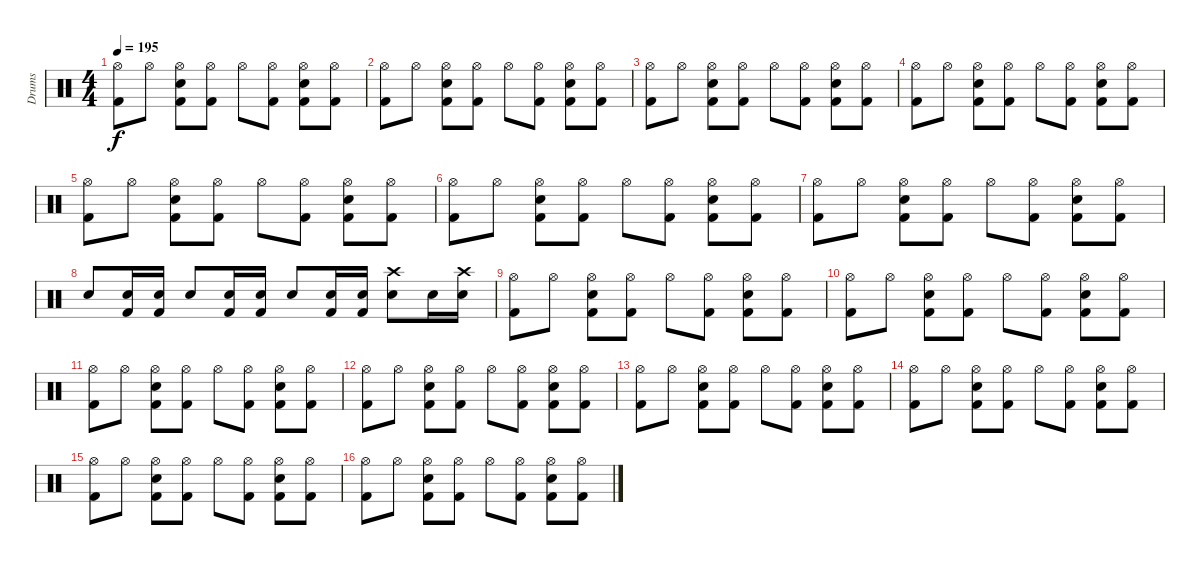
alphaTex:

\track ("Drums" "Drums") {instrument percussion}
\staff {score}
\articulation defaults
\ts (4 4)
\tempo 195
\clef neutral
\ks c
("Hi-Hat (open)" "Kick (hit) 2").8{dy f} "Hi-Hat (open)".8 ("Electric Snare (hit)" "Hi-Hat (open)" "Kick (hit) 2").8 ("Hi-Hat (open)" "Kick (hit) 2").8 "Hi-Hat (open)".8 ("Hi-Hat (open)" "Kick (hit) 2").8 ("Electric Snare (hit)" "Hi-Hat (open)" "Kick (hit) 2").8 ("Hi-Hat (open)" "Kick (hit) 2").8 |
("Hi-Hat (open)" "Kick (hit) 2").8 "Hi-Hat (open)".8 ("Electric Snare (hit)" "Hi-Hat (open)" "Kick (hit) 2").8 ("Hi-Hat (open)" "Kick (hit) 2").8 "Hi-Hat (open)".8 ("Hi-Hat (open)" "Kick (hit) 2").8 ("Electric Snare (hit)" "Hi-Hat (open)" "Kick (hit) 2").8 ("Hi-Hat (open)" "Kick (hit) 2").8 |
("Hi-Hat (open)" "Kick (hit) 2").8 "Hi-Hat (open)".8 ("Electric Snare (hit)" "Hi-Hat (open)" "Kick (hit) 2").8 ("Hi-Hat (open)" "Kick (hit) 2").8 "Hi-Hat (open)".8 ("Hi-Hat (open)" "Kick (hit) 2").8 ("Electric Snare (hit)" "Hi-Hat (open)" "Kick (hit) 2").8 ("Hi-Hat (open)" "Kick (hit) 2").8 |
("Hi-Hat (open)" "Kick (hit) 2").8 "Hi-Hat (open)".8 ("Electric Snare (hit)" "Hi-Hat (open)" "Kick (hit) 2").8 ("Hi-Hat (open)" "Kick (hit) 2").8 "Hi-Hat (open)".8 ("Hi-Hat (open)" "Kick (hit) 2").8 ("Electric Snare (hit)" "Hi-Hat (open)" "Kick (hit) 2").8 ("Hi-Hat (open)" "Kick (hit) 2").8 |
("Hi-Hat (open)" "Kick (hit) 2").8 "Hi-Hat (open)".8 ("Electric Snare (hit)" "Hi-Hat (open)" "Kick (hit) 2").8 ("Hi-Hat (open)" "Kick (hit) 2").8 "Hi-Hat (open)".8 ("Hi-Hat (open)" "Kick (hit) 2").8 ("Electric Snare (hit)" "Hi-Hat (open)" "Kick (hit) 2").8 ("Hi-Hat (open)" "Kick (hit) 2").8 |
("Hi-Hat (open)" "Kick (hit) 2").8 "Hi-Hat (open)".8 ("Electric Snare (hit)" "Hi-Hat (open)" "Kick (hit) 2").8 ("Hi-Hat (open)" "Kick (hit) 2").8 "Hi-Hat (open)".8 ("Hi-Hat (open)" "Kick (hit) 2").8 ("Electric Snare (hit)" "Hi-Hat (open)" "Kick (hit) 2").8 ("Hi-Hat (open)" "Kick (hit) 2").8 |
("Hi-Hat (open)" "Kick (hit) 2").8 "Hi-Hat (open)".8 ("Electric Snare (hit)" "Hi-Hat (open)" "Kick (hit) 2").8 ("Hi-Hat (open)" "Kick (hit) 2").8 "Hi-Hat (open)".8 ("Hi-Hat (open)" "Kick (hit) 2").8 ("Electric Snare (hit)" "Hi-Hat (open)" "Kick (hit) 2").8 ("Hi-Hat (open)" "Kick (hit) 2").8 |
"Electric Snare (hit)".8 ("Electric Snare (hit)" "Kick (hit) 2").16 ("Electric Snare (hit)" "Kick (hit) 2").16 "Electric Snare (hit)".8 ("Electric Snare (hit)" "Kick (hit) 2").16 ("Electric Snare (hit)" "Kick (hit) 2").16 "Electric Snare (hit)".8 ("Electric Snare (hit)" "Kick (hit) 2").16 ("Electric Snare (hit)" "Kick (hit) 2").16 ("Electric Snare (hit)" "Crash high (hit)").8 "Electric Snare (hit)".16 ("Electric Snare (hit)" "Crash high (hit)").16 |
("Hi-Hat (open)" "Kick (hit) 2").8 "Hi-Hat (open)".8 ("Electric Snare (hit)" "Hi-Hat (open)" "Kick (hit) 2").8 ("Hi-Hat (open)" "Kick (hit) 2").8 "Hi-Hat (open)".8 ("Hi-Hat (open)" "Kick (hit) 2").8 ("Electric Snare (hit)" "Hi-Hat (open)" "Kick (hit) 2").8 ("Hi-Hat (open)" "Kick (hit) 2").8 |
("Hi-Hat (open)" "Kick (hit) 2").8 "Hi-Hat (open)".8 ("Electric Snare (hit)" "Hi-Hat (open)" "Kick (hit) 2").8 ("Hi-Hat (open)" "Kick (hit) 2").8 "Hi-Hat (open)".8 ("Hi-Hat (open)" "Kick (hit) 2").8 ("Electric Snare (hit)" "Hi-Hat (open)" "Kick (hit) 2").8 ("Hi-Hat (open)" "Kick (hit) 2").8 |
("Hi-Hat (open)" "Kick (hit) 2").8 "Hi-Hat (open)".8 ("Electric Snare (hit)" "Hi-Hat (open)" "Kick (hit) 2").8 ("Hi-Hat (open)" "Kick (hit) 2").8 "Hi-Hat (open)".8 ("Hi-Hat (open)" "Kick (hit) 2").8 ("Electric Snare (hit)" "Hi-Hat (open)" "Kick (hit) 2").8 ("Hi-Hat (open)" "Kick (hit) 2").8 |
("Hi-Hat (open)" "Kick (hit) 2").8 "Hi-Hat (open)".8 ("Electric Snare (hit)" "Hi-Hat (open)" "Kick (hit) 2").8 ("Hi-Hat (open)" "Kick (hit) 2").8 "Hi-Hat (open)".8 ("Hi-Hat (open)" "Kick (hit) 2").8 ("Electric Snare (hit)" "Hi-Hat (open)" "Kick (hit) 2").8 ("Hi-Hat (open)" "Kick (hit) 2").8 |
("Hi-Hat (open)" "Kick (hit) 2").8 "Hi-Hat (open)".8 ("Electric Snare (hit)" "Hi-Hat (open)" "Kick (hit) 2").8 ("Hi-Hat (open)" "Kick (hit) 2").8 "Hi-Hat (open)".8 ("Hi-Hat (open)" "Kick (hit) 2").8 ("Electric Snare (hit)" "Hi-Hat (open)" "Kick (hit) 2").8 ("Hi-Hat (open)" "Kick (hit) 2").8 |
("Hi-Hat (open)" "Kick (hit) 2").8 "Hi-Hat (open)".8 ("Electric Snare (hit)" "Hi-Hat (open)" "Kick (hit) 2").8 ("Hi-Hat (open)" "Kick (hit) 2").8 "Hi-Hat (open)".8 ("Hi-Hat (open)" "Kick (hit) 2").8 ("Electric Snare (hit)" "Hi-Hat (open)" "Kick (hit) 2").8 ("Hi-Hat (open)" "Kick (hit) 2").8 |
("Hi-Hat (open)" "Kick (hit) 2").8 "Hi-Hat (open)".8 ("Electric Snare (hit)" "Hi-Hat (open)" "Kick (hit) 2").8 ("Hi-Hat (open)" "Kick (hit) 2").8 "Hi-Hat (open)".8 ("Hi-Hat (open)" "Kick (hit) 2").8 ("Electric Snare (hit)" "Hi-Hat (open)" "Kick (hit) 2").8 ("Hi-Hat (open)" "Kick (hit) 2").8 |
("Hi-Hat (open)" "Kick (hit) 2").8 "Hi-Hat (open)".8 ("Electric Snare (hit)" "Hi-Hat (open)" "Kick (hit) 2").8 ("Hi-Hat (open)" "Kick (hit) 2").8 "Hi-Hat (open)".8 ("Hi-Hat (open)" "Kick (hit) 2").8 ("Electric Snare (hit)" "Hi-Hat (open)" "Kick (hit) 2").8 ("Hi-Hat (open)" "Kick (hit) 2").8
